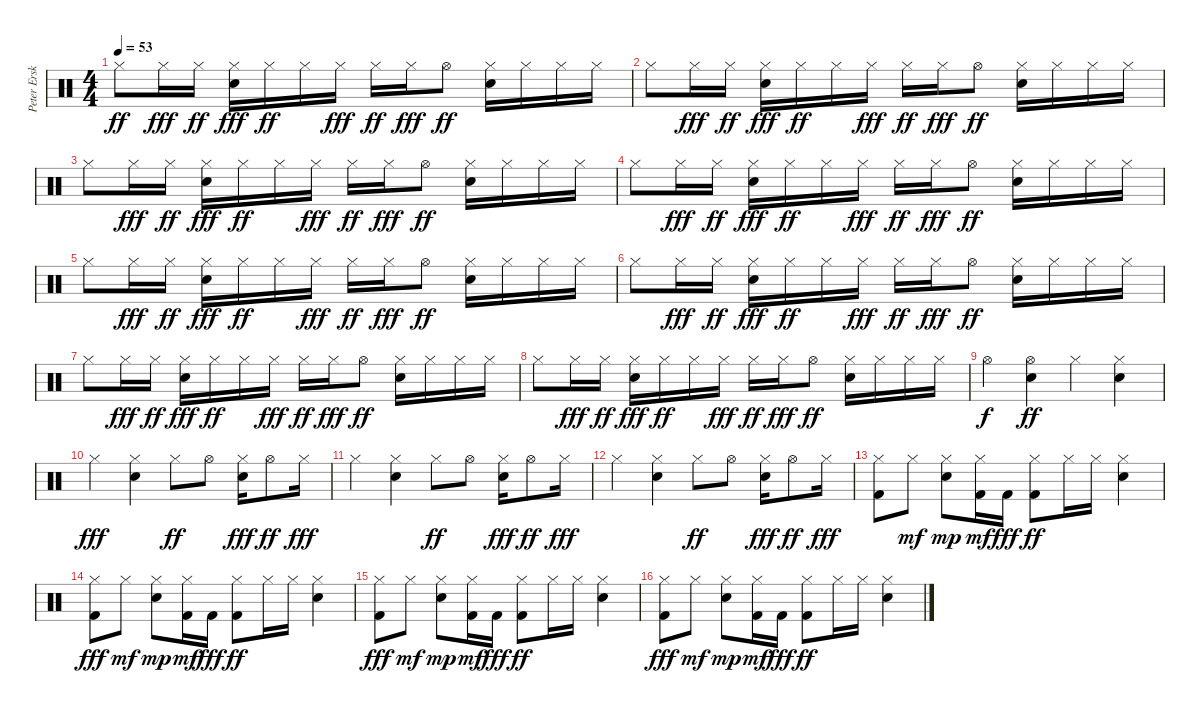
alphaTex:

\track ("Peter Erskine" "Peter Ersk") {instrument percussion}
\staff {score}
\articulation defaults
\ts (4 4)
\tempo 53
\clef neutral
\ks c "Hi-Hat (closed)".8{dy ff} "Hi-Hat (closed)".16{dy fff} "Hi-Hat (closed)".16{dy ff}
("Snare (hit) 2" "Hi-Hat (closed)").16{dy fff} "Hi-Hat (closed)".16{dy ff} "Hi-Hat (closed)".16 "Hi-Hat (closed)".16{dy fff} "Hi-Hat (closed)".16{dy ff} "Hi-Hat (closed)".16{dy fff} "Hi-Hat (open)".8{dy ff} ("Snare (hit) 2" "Hi-Hat (closed)").16 "Hi-Hat (closed)".16 "Hi-Hat (closed)".16 "Hi-Hat (closed)".16 |
"Hi-Hat (closed)".8 "Hi-Hat (closed)".16{dy fff} "Hi-Hat (closed)".16{dy ff} ("Snare (hit) 2" "Hi-Hat (closed)").16{dy fff} "Hi-Hat (closed)".16{dy ff} "Hi-Hat (closed)".16 "Hi-Hat (closed)".16{dy fff} "Hi-Hat (closed)".16{dy ff} "Hi-Hat (closed)".16{dy fff} "Hi-Hat (open)".8{dy ff} ("Snare (hit) 2" "Hi-Hat (closed)").16 "Hi-Hat (closed)".16 "Hi-Hat (closed)".16 "Hi-Hat (closed)".16 |
"Hi-Hat (closed)".8 "Hi-Hat (closed)".16{dy fff} "Hi-Hat (closed)".16{dy ff} ("Snare (hit) 2" "Hi-Hat (closed)").16{dy fff} "Hi-Hat (closed)".16{dy ff} "Hi-Hat (closed)".16 "Hi-Hat (closed)".16{dy fff} "Hi-Hat (closed)".16{dy ff} "Hi-Hat (closed)".16{dy fff} "Hi-Hat (open)".8{dy ff} ("Snare (hit) 2" "Hi-Hat (closed)").16 "Hi-Hat (closed)".16 "Hi-Hat (closed)".16 "Hi-Hat (closed)".16 |
"Hi-Hat (closed)".8 "Hi-Hat (closed)".16{dy fff} "Hi-Hat (closed)".16{dy ff} ("Snare (hit) 2" "Hi-Hat (closed)").16{dy fff} "Hi-Hat (closed)".16{dy ff} "Hi-Hat (closed)".16 "Hi-Hat (closed)".16{dy fff} "Hi-Hat (closed)".16{dy ff} "Hi-Hat (closed)".16{dy fff} "Hi-Hat (open)".8{dy ff} ("Snare (hit) 2" "Hi-Hat (closed)").16 "Hi-Hat (closed)".16 "Hi-Hat (closed)".16 "Hi-Hat (closed)".16 |
"Hi-Hat (closed)".8 "Hi-Hat (closed)".16{dy fff} "Hi-Hat (closed)".16{dy ff} ("Snare (hit) 2" "Hi-Hat (closed)").16{dy fff} "Hi-Hat (closed)".16{dy ff} "Hi-Hat (closed)".16 "Hi-Hat (closed)".16{dy fff} "Hi-Hat (closed)".16{dy ff} "Hi-Hat (closed)".16{dy fff} "Hi-Hat (open)".8{dy ff} ("Snare (hit) 2" "Hi-Hat (closed)").16 "Hi-Hat (closed)".16 "Hi-Hat (closed)".16 "Hi-Hat (closed)".16 |
"Hi-Hat (closed)".8 "Hi-Hat (closed)".16{dy fff} "Hi-Hat (closed)".16{dy ff} ("Snare (hit) 2" "Hi-Hat (closed)").16{dy fff} "Hi-Hat (closed)".16{dy ff} "Hi-Hat (closed)".16 "Hi-Hat (closed)".16{dy fff} "Hi-Hat (closed)".16{dy ff} "Hi-Hat (closed)".16{dy fff} "Hi-Hat (open)".8{dy ff} ("Snare (hit) 2" "Hi-Hat (closed)").16 "Hi-Hat (closed)".16 "Hi-Hat (closed)".16 "Hi-Hat (closed)".16 |
"Hi-Hat (closed)".8 "Hi-Hat (closed)".16{dy fff} "Hi-Hat (closed)".16{dy ff} ("Snare (hit) 2" "Hi-Hat (closed)").16{dy fff} "Hi-Hat (closed)".16{dy ff} "Hi-Hat (closed)".16 "Hi-Hat (closed)".16{dy fff} "Hi-Hat (closed)".16{dy ff} "Hi-Hat (closed)".16{dy fff} "Hi-Hat (open)".8{dy ff} ("Snare (hit) 2" "Hi-Hat (closed)").16 "Hi-Hat (closed)".16 "Hi-Hat (closed)".16 "Hi-Hat (closed)".16 |
"Hi-Hat (closed)".8 "Hi-Hat (closed)".16{dy fff} "Hi-Hat (closed)".16{dy ff} ("Snare (hit) 2" "Hi-Hat (closed)").16{dy fff} "Hi-Hat (closed)".16{dy ff} "Hi-Hat (closed)".16 "Hi-Hat (closed)".16{dy fff} "Hi-Hat (closed)".16{dy ff} "Hi-Hat (closed)".16{dy fff} "Hi-Hat (open)".8{dy ff} ("Snare (hit) 2" "Hi-Hat (closed)").16 "Hi-Hat (closed)".16 "Hi-Hat (closed)".16 "Hi-Hat (closed)".16 |
"Hi-Hat (open)".4{dy f} ("Snare (hit) 2" "Hi-Hat (open)").4{dy ff} "Hi-Hat (closed)".4 ("Snare (hit) 2" "Hi-Hat (closed)").4 |
"Hi-Hat (closed)".4{dy fff} ("Snare (hit) 2" "Hi-Hat (closed)").4 "Hi-Hat (closed)".8{dy ff} "Hi-Hat (open)".8 ("Snare (hit) 2" "Hi-Hat (closed)").16{dy fff} "Hi-Hat (open)".8{dy ff} "Hi-Hat (closed)".16{dy fff} |
"Hi-Hat (closed)".4 ("Snare (hit) 2" "Hi-Hat (closed)").4 "Hi-Hat (closed)".8{dy ff} "Hi-Hat (open)".8 ("Snare (hit) 2" "Hi-Hat (closed)").16{dy fff} "Hi-Hat (open)".8{dy ff} "Hi-Hat (closed)".16{dy fff} |
"Hi-Hat (closed)".4 ("Snare (hit) 2" "Hi-Hat (closed)").4 "Hi-Hat (closed)".8{dy ff} "Hi-Hat (open)".8 ("Snare (hit) 2" "Hi-Hat (closed)").16{dy fff} "Hi-Hat (open)".8{dy ff} "Hi-Hat (closed)".16{dy fff} |
("Kick (hit) 2" "Hi-Hat (closed)").8 "Hi-Hat (closed)".8{dy mf} ("Snare (hit) 2" "Hi-Hat (closed)").8{dy mp} ("Kick (hit) 2" "Hi-Hat (closed)").16{dy mf} "Kick (hit) 2".16{dy fff} ("Kick (hit) 2" "Hi-Hat (closed)").8{dy ff} "Hi-Hat (closed)".16 "Hi-Hat (closed)".16 ("Snare (hit) 2" "Hi-Hat (closed)").4 |
("Kick (hit) 2" "Hi-Hat (closed)").8{dy fff} "Hi-Hat (closed)".8{dy mf} ("Snare (hit) 2" "Hi-Hat (closed)").8{dy mp} ("Kick (hit) 2" "Hi-Hat (closed)").16{dy mf} "Kick (hit) 2".16{dy fff} ("Kick (hit) 2" "Hi-Hat (closed)").8{dy ff} "Hi-Hat (closed)".16 "Hi-Hat (closed)".16 ("Snare (hit) 2" "Hi-Hat (closed)").4 |
("Kick (hit) 2" "Hi-Hat (closed)").8{dy fff} "Hi-Hat (closed)".8{dy mf} ("Snare (hit) 2" "Hi-Hat (closed)").8{dy mp} ("Kick (hit) 2" "Hi-Hat (closed)").16{dy mf} "Kick (hit) 2".16{dy fff} ("Kick (hit) 2" "Hi-Hat (closed)").8{dy ff} "Hi-Hat (closed)".16 "Hi-Hat (closed)".16 ("Snare (hit) 2" "Hi-Hat (closed)").4 |
("Kick (hit) 2" "Hi-Hat (closed)").8{dy fff} "Hi-Hat (closed)".8{dy mf} ("Snare (hit) 2" "Hi-Hat (closed)").8{dy mp} ("Kick (hit) 2" "Hi-Hat (closed)").16{dy mf} "Kick (hit) 2".16{dy fff} ("Kick (hit) 2" "Hi-Hat (closed)").8{dy ff} "Hi-Hat (closed)".16 "Hi-Hat (closed)".16 ("Snare (hit) 2" "Hi-Hat (closed)").4
